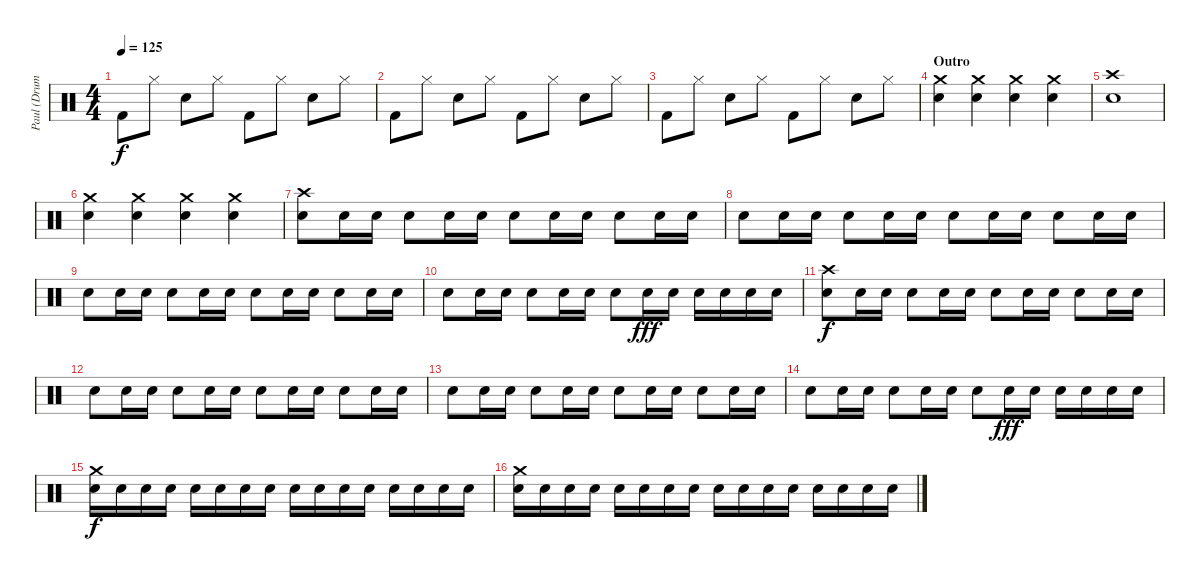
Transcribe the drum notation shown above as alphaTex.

\track ("Paul (Drums)" "Paul (Drum") {instrument percussion}
\staff {score}
\articulation defaults
\ts (4 4)
\tempo 125
\clef neutral
\ks c "Kick (hit) 2".8{dy f} "Hi-Hat (closed)".8 "Snare (hit) 2".8 "Hi-Hat (closed)".8 "Kick (hit) 2".8 "Hi-Hat (closed)".8 "Snare (hit) 2".8 "Hi-Hat (closed)".8
|
"Kick (hit) 2".8 "Hi-Hat (closed)".8 "Snare (hit) 2".8 "Hi-Hat (closed)".8 "Kick (hit) 2".8 "Hi-Hat (closed)".8 "Snare (hit) 2".8 "Hi-Hat (closed)".8 |
"Kick (hit) 2".8 "Hi-Hat (closed)".8 "Snare (hit) 2".8 "Hi-Hat (closed)".8 "Kick (hit) 2".8 "Hi-Hat (closed)".8 "Snare (hit) 2".8 "Hi-Hat (closed)".8 |
\section ("" "Outro")
("Crash medium (hit)" "Snare (hit) 2").4 ("Crash medium (hit)" "Snare (hit) 2").4 ("Crash medium (hit)" "Snare (hit) 2").4 ("Crash medium (hit)" "Snare (hit) 2").4 |
("Crash high (hit)" "Snare (hit) 2").1 |
("Crash medium (hit)" "Snare (hit) 2").4 ("Crash medium (hit)" "Snare (hit) 2").4 ("Crash medium (hit)" "Snare (hit) 2").4 ("Crash medium (hit)" "Snare (hit) 2").4 |
("Crash high (hit)" "Snare (hit) 2").8 "Snare (hit) 2".16 "Snare (hit) 2".16 "Snare (hit) 2".8 "Snare (hit) 2".16 "Snare (hit) 2".16 "Snare (hit) 2".8 "Snare (hit) 2".16 "Snare (hit) 2".16 "Snare (hit) 2".8 "Snare (hit) 2".16 "Snare (hit) 2".16 |
"Snare (hit) 2".8 "Snare (hit) 2".16 "Snare (hit) 2".16 "Snare (hit) 2".8 "Snare (hit) 2".16 "Snare (hit) 2".16 "Snare (hit) 2".8 "Snare (hit) 2".16 "Snare (hit) 2".16 "Snare (hit) 2".8 "Snare (hit) 2".16 "Snare (hit) 2".16 |
"Snare (hit) 2".8 "Snare (hit) 2".16 "Snare (hit) 2".16 "Snare (hit) 2".8 "Snare (hit) 2".16 "Snare (hit) 2".16 "Snare (hit) 2".8 "Snare (hit) 2".16 "Snare (hit) 2".16 "Snare (hit) 2".8 "Snare (hit) 2".16 "Snare (hit) 2".16 |
"Snare (hit) 2".8 "Snare (hit) 2".16 "Snare (hit) 2".16 "Snare (hit) 2".8 "Snare (hit) 2".16 "Snare (hit) 2".16 "Snare (hit) 2".8 "Snare (hit) 2".16{dy fff} "Snare (hit) 2".16 "Snare (hit) 2".16 "Snare (hit) 2".16 "Snare (hit) 2".16 "Snare (hit) 2".16 |
("Crash high (hit)" "Snare (hit) 2").8{dy f} "Snare (hit) 2".16 "Snare (hit) 2".16 "Snare (hit) 2".8 "Snare (hit) 2".16 "Snare (hit) 2".16 "Snare (hit) 2".8 "Snare (hit) 2".16 "Snare (hit) 2".16 "Snare (hit) 2".8 "Snare (hit) 2".16 "Snare (hit) 2".16 |
"Snare (hit) 2".8 "Snare (hit) 2".16 "Snare (hit) 2".16 "Snare (hit) 2".8 "Snare (hit) 2".16 "Snare (hit) 2".16 "Snare (hit) 2".8 "Snare (hit) 2".16 "Snare (hit) 2".16 "Snare (hit) 2".8 "Snare (hit) 2".16 "Snare (hit) 2".16 |
"Snare (hit) 2".8 "Snare (hit) 2".16 "Snare (hit) 2".16 "Snare (hit) 2".8 "Snare (hit) 2".16 "Snare (hit) 2".16 "Snare (hit) 2".8 "Snare (hit) 2".16 "Snare (hit) 2".16 "Snare (hit) 2".8 "Snare (hit) 2".16 "Snare (hit) 2".16 |
"Snare (hit) 2".8 "Snare (hit) 2".16 "Snare (hit) 2".16 "Snare (hit) 2".8 "Snare (hit) 2".16 "Snare (hit) 2".16 "Snare (hit) 2".8 "Snare (hit) 2".16{dy fff} "Snare (hit) 2".16 "Snare (hit) 2".16 "Snare (hit) 2".16 "Snare (hit) 2".16 "Snare (hit) 2".16 |
("Crash medium (hit)" "Snare (hit) 2").16{dy f} "Snare (hit) 2".16 "Snare (hit) 2".16 "Snare (hit) 2".16 "Snare (hit) 2".16 "Snare (hit) 2".16 "Snare (hit) 2".16 "Snare (hit) 2".16 "Snare (hit) 2".16 "Snare (hit) 2".16 "Snare (hit) 2".16 "Snare (hit) 2".16 "Snare (hit) 2".16 "Snare (hit) 2".16 "Snare (hit) 2".16 "Snare (hit) 2".16 |
("Crash medium (hit)" "Snare (hit) 2").16 "Snare (hit) 2".16 "Snare (hit) 2".16 "Snare (hit) 2".16 "Snare (hit) 2".16 "Snare (hit) 2".16 "Snare (hit) 2".16 "Snare (hit) 2".16 "Snare (hit) 2".16 "Snare (hit) 2".16 "Snare (hit) 2".16 "Snare (hit) 2".16 "Snare (hit) 2".16 "Snare (hit) 2".16 "Snare (hit) 2".16 "Snare (hit) 2".16
